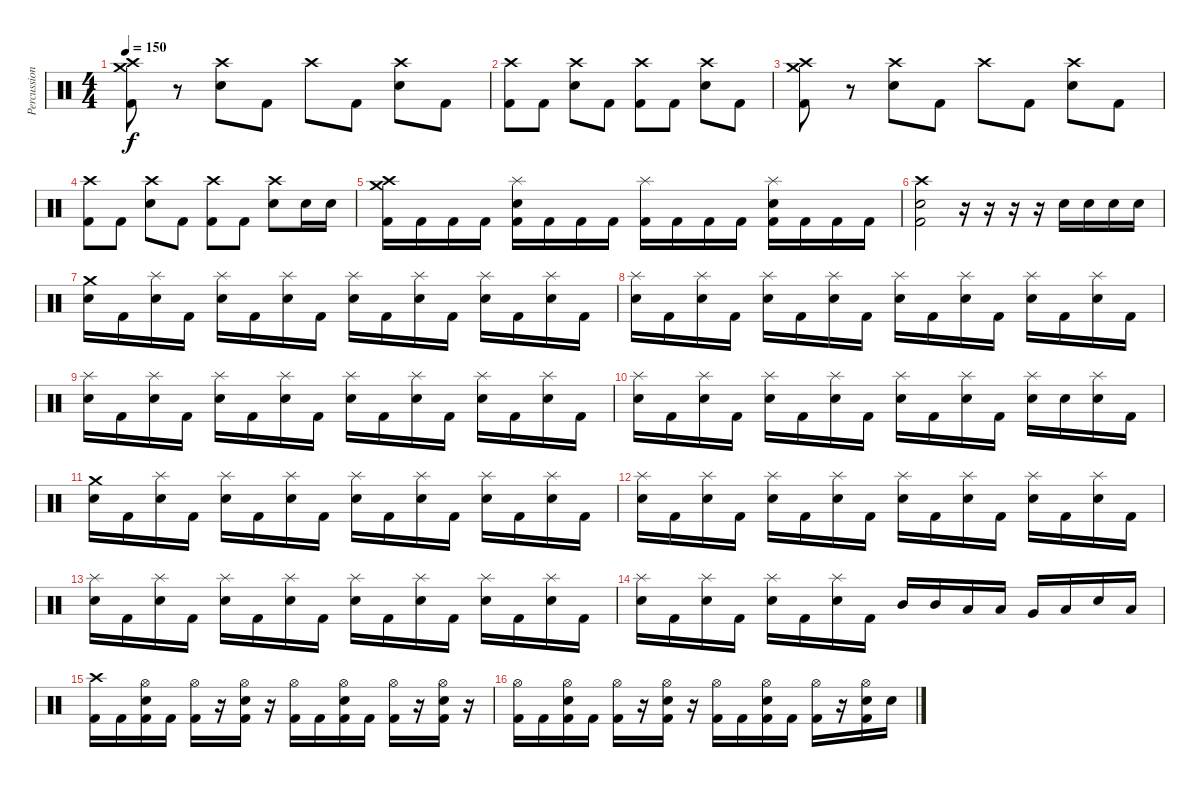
\track ("Percussion" "Percussion") {instrument percussion}
\staff {score}
\articulation defaults
\ts (4 4)
\tempo 150
\clef neutral
\ks c
("Crash high (hit)" "Crash medium (hit)" "Kick (hit) 2").8{dy f} r.8 ("Crash high (hit)" "Electric Snare (hit)").8 "Kick (hit) 2".8 "Crash high (hit)".8 "Kick (hit) 2".8 ("Crash high (hit)" "Electric Snare (hit)").8 "Kick (hit) 2".8 |
("Crash high (hit)" "Kick (hit) 2").8 "Kick (hit) 2".8 ("Crash high (hit)" "Electric Snare (hit)").8 "Kick (hit) 2".8 ("Crash high (hit)" "Kick (hit) 2").8 "Kick (hit) 2".8 ("Crash high (hit)" "Electric Snare (hit)").8 "Kick (hit) 2".8 |
("Crash high (hit)" "Crash medium (hit)" "Kick (hit) 2").8 r.8 ("Crash high (hit)" "Electric Snare (hit)").8 "Kick (hit) 2".8 "Crash high (hit)".8 "Kick (hit) 2".8 ("Crash high (hit)" "Electric Snare (hit)").8 "Kick (hit) 2".8 |
("Crash high (hit)" "Kick (hit) 2").8 "Kick (hit) 2".8 ("Crash high (hit)" "Electric Snare (hit)").8 "Kick (hit) 2".8 ("Crash high (hit)" "Kick (hit) 2").8 "Kick (hit) 2".8 ("Crash high (hit)" "Electric Snare (hit)").8 "Electric Snare (hit)".16 "Electric Snare (hit)".16 |
("Crash medium (hit)" "Crash high (hit)" "Kick (hit) 2").16 "Kick (hit) 2".16 "Kick (hit) 2".16 "Kick (hit) 2".16 ("Splash (hit)" "Electric Snare (hit)" "Kick (hit) 2").16 "Kick (hit) 2".16 "Kick (hit) 2".16 "Kick (hit) 2".16 ("Splash (hit)" "Kick (hit) 2").16 "Kick (hit) 2".16 "Kick (hit) 2".16 "Kick (hit) 2".16 ("Splash (hit)" "Electric Snare (hit)" "Kick (hit) 2").16 "Kick (hit) 2".16 "Kick (hit) 2".16 "Kick (hit) 2".16 |
("Crash high (hit)" "Electric Snare (hit)" "Kick (hit) 2").2 r.16 r.16 r.16 r.16 "Electric Snare (hit)".16 "Electric Snare (hit)".16 "Electric Snare (hit)".16 "Electric Snare (hit)".16 |
("Crash medium (hit)" "Electric Snare (hit)").16 "Kick (hit) 2".16 ("Splash (hit)" "Electric Snare (hit)").16 "Kick (hit) 2".16 ("Splash (hit)" "Electric Snare (hit)").16 "Kick (hit) 2".16 ("Splash (hit)" "Electric Snare (hit)").16 "Kick (hit) 2".16 ("Splash (hit)" "Electric Snare (hit)").16 "Kick (hit) 2".16 ("Splash (hit)" "Electric Snare (hit)").16 "Kick (hit) 2".16 ("Splash (hit)" "Electric Snare (hit)").16 "Kick (hit) 2".16 ("Splash (hit)" "Electric Snare (hit)").16 "Kick (hit) 2".16 |
("Splash (hit)" "Electric Snare (hit)").16 "Kick (hit) 2".16 ("Splash (hit)" "Electric Snare (hit)").16 "Kick (hit) 2".16 ("Splash (hit)" "Electric Snare (hit)").16 "Kick (hit) 2".16 ("Splash (hit)" "Electric Snare (hit)").16 "Kick (hit) 2".16 ("Splash (hit)" "Electric Snare (hit)").16 "Kick (hit) 2".16 ("Splash (hit)" "Electric Snare (hit)").16 "Kick (hit) 2".16 ("Splash (hit)" "Electric Snare (hit)").16 "Kick (hit) 2".16 ("Splash (hit)" "Electric Snare (hit)").16 "Kick (hit) 2".16 |
("Splash (hit)" "Electric Snare (hit)").16 "Kick (hit) 2".16 ("Splash (hit)" "Electric Snare (hit)").16 "Kick (hit) 2".16 ("Splash (hit)" "Electric Snare (hit)").16 "Kick (hit) 2".16 ("Splash (hit)" "Electric Snare (hit)").16 "Kick (hit) 2".16 ("Splash (hit)" "Electric Snare (hit)").16 "Kick (hit) 2".16 ("Splash (hit)" "Electric Snare (hit)").16 "Kick (hit) 2".16 ("Splash (hit)" "Electric Snare (hit)").16 "Kick (hit) 2".16 ("Splash (hit)" "Electric Snare (hit)").16 "Kick (hit) 2".16 |
("Splash (hit)" "Electric Snare (hit)").16 "Kick (hit) 2".16 ("Splash (hit)" "Electric Snare (hit)").16 "Kick (hit) 2".16 ("Splash (hit)" "Electric Snare (hit)").16 "Kick (hit) 2".16 ("Splash (hit)" "Electric Snare (hit)").16 "Kick (hit) 2".16 ("Splash (hit)" "Electric Snare (hit)").16 "Kick (hit) 2".16 ("Splash (hit)" "Electric Snare (hit)").16 "Kick (hit) 2".16 ("Splash (hit)" "Electric Snare (hit)").16 "Electric Snare (hit)".16 ("Splash (hit)" "Electric Snare (hit)").16 "Kick (hit) 2".16 |
("Crash medium (hit)" "Electric Snare (hit)").16 "Kick (hit) 2".16 ("Splash (hit)" "Electric Snare (hit)").16 "Kick (hit) 2".16 ("Splash (hit)" "Electric Snare (hit)").16 "Kick (hit) 2".16 ("Splash (hit)" "Electric Snare (hit)").16 "Kick (hit) 2".16 ("Splash (hit)" "Electric Snare (hit)").16 "Kick (hit) 2".16 ("Splash (hit)" "Electric Snare (hit)").16 "Kick (hit) 2".16 ("Splash (hit)" "Electric Snare (hit)").16 "Kick (hit) 2".16 ("Splash (hit)" "Electric Snare (hit)").16 "Kick (hit) 2".16 |
("Splash (hit)" "Electric Snare (hit)").16 "Kick (hit) 2".16 ("Splash (hit)" "Electric Snare (hit)").16 "Kick (hit) 2".16 ("Splash (hit)" "Electric Snare (hit)").16 "Kick (hit) 2".16 ("Splash (hit)" "Electric Snare (hit)").16 "Kick (hit) 2".16 ("Splash (hit)" "Electric Snare (hit)").16 "Kick (hit) 2".16 ("Splash (hit)" "Electric Snare (hit)").16 "Kick (hit) 2".16 ("Splash (hit)" "Electric Snare (hit)").16 "Kick (hit) 2".16 ("Splash (hit)" "Electric Snare (hit)").16 "Kick (hit) 2".16 |
("Splash (hit)" "Electric Snare (hit)").16 "Kick (hit) 2".16 ("Splash (hit)" "Electric Snare (hit)").16 "Kick (hit) 2".16 ("Splash (hit)" "Electric Snare (hit)").16 "Kick (hit) 2".16 ("Splash (hit)" "Electric Snare (hit)").16 "Kick (hit) 2".16 ("Splash (hit)" "Electric Snare (hit)").16 "Kick (hit) 2".16 ("Splash (hit)" "Electric Snare (hit)").16 "Kick (hit) 2".16 ("Splash (hit)" "Electric Snare (hit)").16 "Kick (hit) 2".16 ("Splash (hit)" "Electric Snare (hit)").16 "Kick (hit) 2".16 |
("Splash (hit)" "Electric Snare (hit)").16 "Kick (hit) 2".16 ("Splash (hit)" "Electric Snare (hit)").16 "Kick (hit) 2".16 ("Splash (hit)" "Electric Snare (hit)").16 "Kick (hit) 2".16 ("Splash (hit)" "Electric Snare (hit)").16 "Kick (hit) 2".16 "Mid Tom (hit)".16 "Mid Tom (hit)".16 "Low Tom (hit)".16 "Low Tom (hit)".16 "Very Low Tom (hit)".16 "Low Floor Tom (hit)".16 "Electric Snare (hit)".16 "Low Floor Tom (hit)".16 |
("Crash high (hit)" "Kick (hit) 2").16 "Kick (hit) 2".16 ("Hi-Hat (open)" "Electric Snare (hit)" "Kick (hit) 2").16 "Kick (hit) 2".16 ("Hi-Hat (open)" "Kick (hit) 2").16 r.16 ("Hi-Hat (open)" "Electric Snare (hit)" "Kick (hit) 2").16 r.16 ("Hi-Hat (open)" "Kick (hit) 2").16 "Kick (hit) 2".16 ("Hi-Hat (open)" "Electric Snare (hit)" "Kick (hit) 2").16 "Kick (hit) 2".16 ("Hi-Hat (open)" "Kick (hit) 2").16 r.16 ("Hi-Hat (open)" "Electric Snare (hit)" "Kick (hit) 2").16 r.16 |
("Hi-Hat (open)" "Kick (hit) 2").16 "Kick (hit) 2".16 ("Hi-Hat (open)" "Electric Snare (hit)" "Kick (hit) 2").16 "Kick (hit) 2".16 ("Hi-Hat (open)" "Kick (hit) 2").16 r.16 ("Hi-Hat (open)" "Electric Snare (hit)" "Kick (hit) 2").16 r.16 ("Hi-Hat (open)" "Kick (hit) 2").16 "Kick (hit) 2".16 ("Hi-Hat (open)" "Electric Snare (hit)" "Kick (hit) 2").16 "Kick (hit) 2".16 ("Hi-Hat (open)" "Kick (hit) 2").16 r.16 ("Hi-Hat (open)" "Electric Snare (hit)" "Kick (hit) 2").16 "Electric Snare (hit)".16
